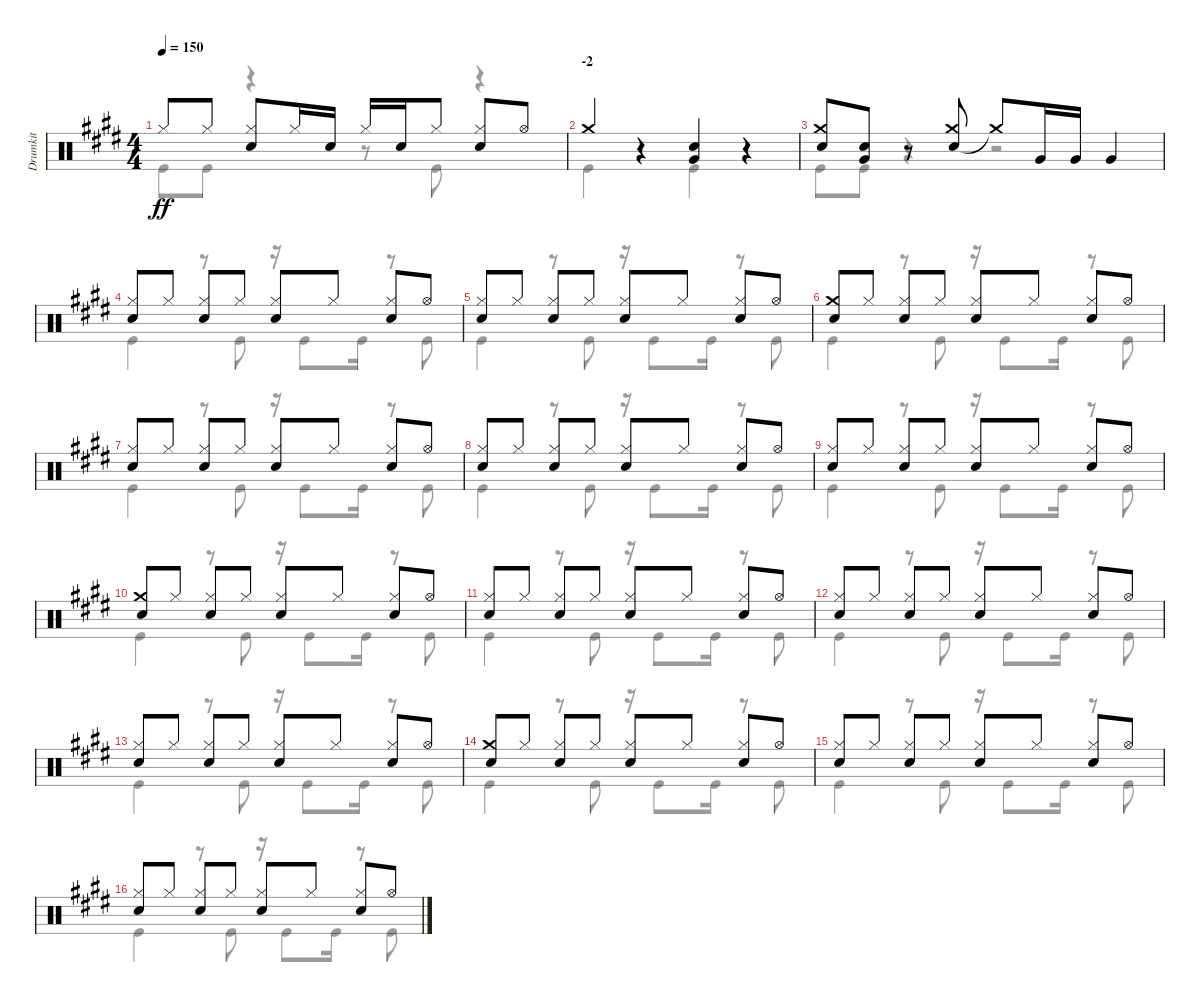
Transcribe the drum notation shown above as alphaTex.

\track ("Drumkit" "Drumkit") {instrument percussion}
\staff {score}
\articulation defaults
\voice
\ts (4 4)
\tempo 150
\clef neutral
\ks e "Hi-Hat (closed)".8{dy ff} "Hi-Hat (closed)".8
("Hi-Hat (closed)" "Snare (hit) 2").8 "Hi-Hat (closed)".16 "Snare (hit) 2".16 "Hi-Hat (closed)".16 "Snare (hit) 2".16 "Hi-Hat (closed)".8 ("Hi-Hat (closed)" "Snare (hit) 2").8 "Hi-Hat (open)".8 |
\section ("" "-2")
"Crash medium (hit)".4 r.4 ("Snare (hit) 2" "Very Low Tom (hit)").4 r.4 |
("Crash medium (hit)" "Snare (hit) 2").8 ("Snare (hit) 2" "Very Low Tom (hit)").8 r.8 ("Snare (hit) 2" "Crash medium (hit)").8 "Crash medium (hit)"{t}.8 "Very Low Tom (hit)".16 "Very Low Tom (hit)".16 "Very Low Tom (hit)".4 |
("Snare (hit) 2" "Hi-Hat (closed)").8 "Hi-Hat (closed)".8 ("Hi-Hat (closed)" "Snare (hit) 2").8 "Hi-Hat (closed)".8 ("Hi-Hat (closed)" "Snare (hit) 2").8 "Hi-Hat (closed)".8 ("Hi-Hat (closed)" "Snare (hit) 2").8 "Hi-Hat (open)".8 |
("Snare (hit) 2" "Hi-Hat (closed)").8 "Hi-Hat (closed)".8 ("Hi-Hat (closed)" "Snare (hit) 2").8 "Hi-Hat (closed)".8 ("Hi-Hat (closed)" "Snare (hit) 2").8 "Hi-Hat (closed)".8 ("Hi-Hat (closed)" "Snare (hit) 2").8 "Hi-Hat (open)".8 |
("Crash medium (hit)" "Snare (hit) 2").8 "Hi-Hat (closed)".8 ("Hi-Hat (closed)" "Snare (hit) 2").8 "Hi-Hat (closed)".8 ("Hi-Hat (closed)" "Snare (hit) 2").8 "Hi-Hat (closed)".8 ("Hi-Hat (closed)" "Snare (hit) 2").8 "Hi-Hat (open)".8 |
("Snare (hit) 2" "Hi-Hat (closed)").8 "Hi-Hat (closed)".8 ("Hi-Hat (closed)" "Snare (hit) 2").8 "Hi-Hat (closed)".8 ("Hi-Hat (closed)" "Snare (hit) 2").8 "Hi-Hat (closed)".8 ("Hi-Hat (closed)" "Snare (hit) 2").8 "Hi-Hat (open)".8 |
("Snare (hit) 2" "Hi-Hat (closed)").8 "Hi-Hat (closed)".8 ("Hi-Hat (closed)" "Snare (hit) 2").8 "Hi-Hat (closed)".8 ("Hi-Hat (closed)" "Snare (hit) 2").8 "Hi-Hat (closed)".8 ("Hi-Hat (closed)" "Snare (hit) 2").8 "Hi-Hat (open)".8 |
("Snare (hit) 2" "Hi-Hat (closed)").8 "Hi-Hat (closed)".8 ("Hi-Hat (closed)" "Snare (hit) 2").8 "Hi-Hat (closed)".8 ("Hi-Hat (closed)" "Snare (hit) 2").8 "Hi-Hat (closed)".8 ("Hi-Hat (closed)" "Snare (hit) 2").8 "Hi-Hat (open)".8 |
("Crash medium (hit)" "Snare (hit) 2").8 "Hi-Hat (closed)".8 ("Hi-Hat (closed)" "Snare (hit) 2").8 "Hi-Hat (closed)".8 ("Hi-Hat (closed)" "Snare (hit) 2").8 "Hi-Hat (closed)".8 ("Hi-Hat (closed)" "Snare (hit) 2").8 "Hi-Hat (open)".8 |
("Snare (hit) 2" "Hi-Hat (closed)").8 "Hi-Hat (closed)".8 ("Hi-Hat (closed)" "Snare (hit) 2").8 "Hi-Hat (closed)".8 ("Hi-Hat (closed)" "Snare (hit) 2").8 "Hi-Hat (closed)".8 ("Hi-Hat (closed)" "Snare (hit) 2").8 "Hi-Hat (open)".8 |
("Snare (hit) 2" "Hi-Hat (closed)").8 "Hi-Hat (closed)".8 ("Hi-Hat (closed)" "Snare (hit) 2").8 "Hi-Hat (closed)".8 ("Hi-Hat (closed)" "Snare (hit) 2").8 "Hi-Hat (closed)".8 ("Hi-Hat (closed)" "Snare (hit) 2").8 "Hi-Hat (open)".8 |
("Snare (hit) 2" "Hi-Hat (closed)").8 "Hi-Hat (closed)".8 ("Hi-Hat (closed)" "Snare (hit) 2").8 "Hi-Hat (closed)".8 ("Hi-Hat (closed)" "Snare (hit) 2").8 "Hi-Hat (closed)".8 ("Hi-Hat (closed)" "Snare (hit) 2").8 "Hi-Hat (open)".8 |
("Crash medium (hit)" "Snare (hit) 2").8 "Hi-Hat (closed)".8 ("Hi-Hat (closed)" "Snare (hit) 2").8 "Hi-Hat (closed)".8 ("Hi-Hat (closed)" "Snare (hit) 2").8 "Hi-Hat (closed)".8 ("Hi-Hat (closed)" "Snare (hit) 2").8 "Hi-Hat (open)".8 |
("Snare (hit) 2" "Hi-Hat (closed)").8 "Hi-Hat (closed)".8 ("Hi-Hat (closed)" "Snare (hit) 2").8 "Hi-Hat (closed)".8 ("Hi-Hat (closed)" "Snare (hit) 2").8 "Hi-Hat (closed)".8 ("Hi-Hat (closed)" "Snare (hit) 2").8 "Hi-Hat (open)".8 |
("Snare (hit) 2" "Hi-Hat (closed)").8 "Hi-Hat (closed)".8 ("Hi-Hat (closed)" "Snare (hit) 2").8 "Hi-Hat (closed)".8 ("Hi-Hat (closed)" "Snare (hit) 2").8 "Hi-Hat (closed)".8 ("Hi-Hat (closed)" "Snare (hit) 2").8 "Hi-Hat (open)".8
\voice
\clef neutral
\ottava regular
\simile none
\ks e "Kick (hit)".8{dy ff} "Kick (hit)".8
r.4 r.8 "Kick (hit)".8 r.4 |
"Kick (hit)".4 r.4 "Kick (hit)".4 r.4 |
"Kick (hit)".8 "Kick (hit)".8 r.4 r.2 |
"Kick (hit)".4 r.8 "Kick (hit)".8 r.16 "Kick (hit)".8 "Kick (hit)".16 r.8 "Kick (hit)".8 |
"Kick (hit)".4 r.8 "Kick (hit)".8 r.16 "Kick (hit)".8 "Kick (hit)".16 r.8 "Kick (hit)".8 |
"Kick (hit)".4 r.8 "Kick (hit)".8 r.16 "Kick (hit)".8 "Kick (hit)".16 r.8 "Kick (hit)".8 |
"Kick (hit)".4 r.8 "Kick (hit)".8 r.16 "Kick (hit)".8 "Kick (hit)".16 r.8 "Kick (hit)".8 |
"Kick (hit)".4 r.8 "Kick (hit)".8 r.16 "Kick (hit)".8 "Kick (hit)".16 r.8 "Kick (hit)".8 |
"Kick (hit)".4 r.8 "Kick (hit)".8 r.16 "Kick (hit)".8 "Kick (hit)".16 r.8 "Kick (hit)".8 |
"Kick (hit)".4 r.8 "Kick (hit)".8 r.16 "Kick (hit)".8 "Kick (hit)".16 r.8 "Kick (hit)".8 |
"Kick (hit)".4 r.8 "Kick (hit)".8 r.16 "Kick (hit)".8 "Kick (hit)".16 r.8 "Kick (hit)".8 |
"Kick (hit)".4 r.8 "Kick (hit)".8 r.16 "Kick (hit)".8 "Kick (hit)".16 r.8 "Kick (hit)".8 |
"Kick (hit)".4 r.8 "Kick (hit)".8 r.16 "Kick (hit)".8 "Kick (hit)".16 r.8 "Kick (hit)".8 |
"Kick (hit)".4 r.8 "Kick (hit)".8 r.16 "Kick (hit)".8 "Kick (hit)".16 r.8 "Kick (hit)".8 |
"Kick (hit)".4 r.8 "Kick (hit)".8 r.16 "Kick (hit)".8 "Kick (hit)".16 r.8 "Kick (hit)".8 |
"Kick (hit)".4 r.8 "Kick (hit)".8 r.16 "Kick (hit)".8 "Kick (hit)".16 r.8 "Kick (hit)".8
